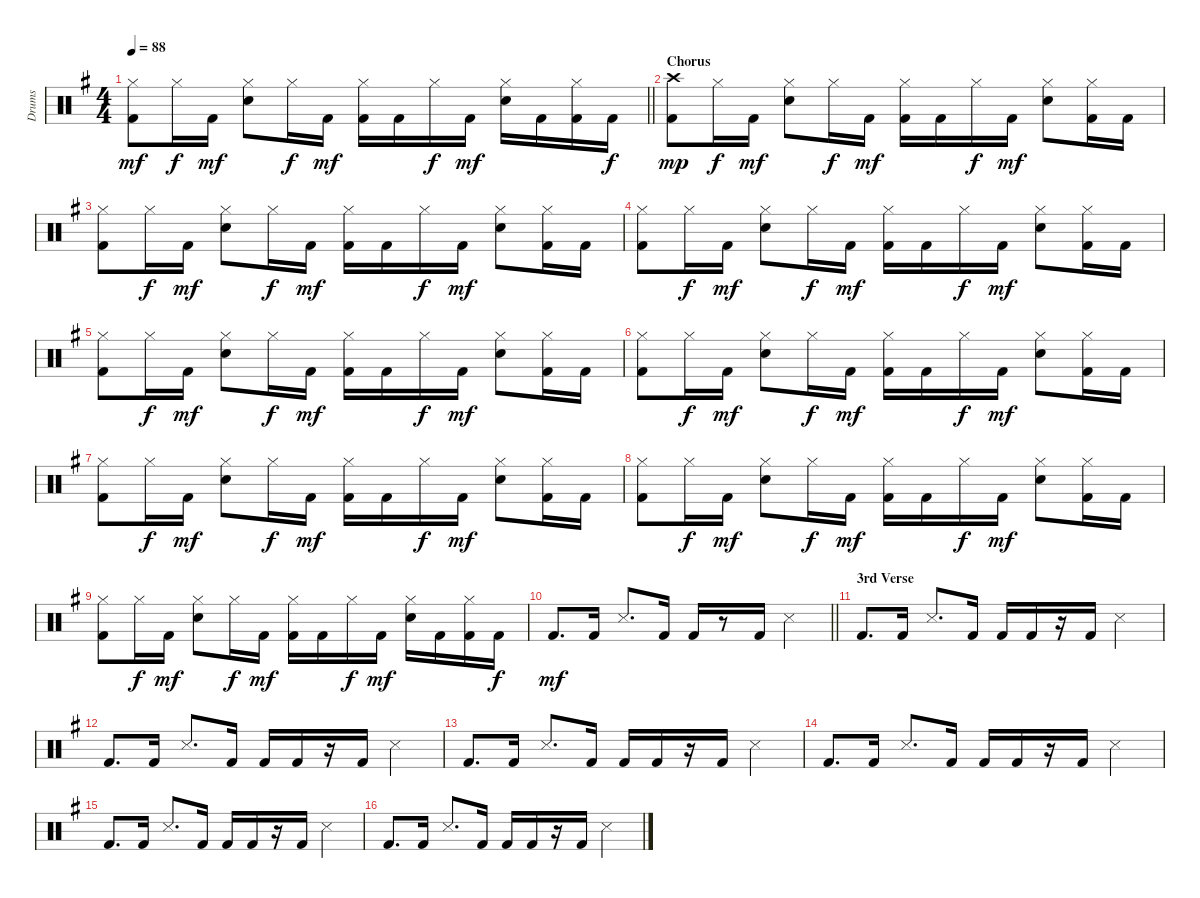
\track ("Drums" "Drums") {instrument percussion}
\staff {score}
\articulation defaults
\ts (4 4)
\tempo 88
\clef neutral
\barLineRight lightlight
\ks eminor
("Kick (hit) 2" "Hi-Hat (closed)").8{dy mf} "Hi-Hat (closed)".16{dy f} "Kick (hit) 2".16{dy mf} ("Snare (hit) 2" "Hi-Hat (closed)").8 "Hi-Hat (closed)".16{dy f} "Kick (hit) 2".16{dy mf} ("Kick (hit) 2" "Hi-Hat (closed)").16 "Kick (hit) 2".16 "Hi-Hat (closed)".16{dy f} "Kick (hit) 2".16{dy mf} ("Snare (hit) 2" "Hi-Hat (closed)").16 "Kick (hit) 2".16 ("Kick (hit) 2" "Hi-Hat (closed)").16 "Kick (hit) 2".16{dy f} |
\section ("" "Chorus")
("Kick (hit) 2" "Crash high (hit)").8{dy mp} "Hi-Hat (closed)".16{dy f} "Kick (hit) 2".16{dy mf} ("Snare (hit) 2" "Hi-Hat (closed)").8 "Hi-Hat (closed)".16{dy f} "Kick (hit) 2".16{dy mf} ("Kick (hit) 2" "Hi-Hat (closed)").16 "Kick (hit) 2".16 "Hi-Hat (closed)".16{dy f} "Kick (hit) 2".16{dy mf} ("Snare (hit) 2" "Hi-Hat (closed)").8 ("Kick (hit) 2" "Hi-Hat (closed)").16 "Kick (hit) 2".16 |
("Kick (hit) 2" "Hi-Hat (closed)").8 "Hi-Hat (closed)".16{dy f} "Kick (hit) 2".16{dy mf} ("Snare (hit) 2" "Hi-Hat (closed)").8 "Hi-Hat (closed)".16{dy f} "Kick (hit) 2".16{dy mf} ("Kick (hit) 2" "Hi-Hat (closed)").16 "Kick (hit) 2".16 "Hi-Hat (closed)".16{dy f} "Kick (hit) 2".16{dy mf} ("Snare (hit) 2" "Hi-Hat (closed)").8 ("Kick (hit) 2" "Hi-Hat (closed)").16 "Kick (hit) 2".16 |
("Kick (hit) 2" "Hi-Hat (closed)").8 "Hi-Hat (closed)".16{dy f} "Kick (hit) 2".16{dy mf} ("Snare (hit) 2" "Hi-Hat (closed)").8 "Hi-Hat (closed)".16{dy f} "Kick (hit) 2".16{dy mf} ("Kick (hit) 2" "Hi-Hat (closed)").16 "Kick (hit) 2".16 "Hi-Hat (closed)".16{dy f} "Kick (hit) 2".16{dy mf} ("Snare (hit) 2" "Hi-Hat (closed)").8 ("Kick (hit) 2" "Hi-Hat (closed)").16 "Kick (hit) 2".16 |
("Kick (hit) 2" "Hi-Hat (closed)").8 "Hi-Hat (closed)".16{dy f} "Kick (hit) 2".16{dy mf} ("Snare (hit) 2" "Hi-Hat (closed)").8 "Hi-Hat (closed)".16{dy f} "Kick (hit) 2".16{dy mf} ("Kick (hit) 2" "Hi-Hat (closed)").16 "Kick (hit) 2".16 "Hi-Hat (closed)".16{dy f} "Kick (hit) 2".16{dy mf} ("Snare (hit) 2" "Hi-Hat (closed)").8 ("Kick (hit) 2" "Hi-Hat (closed)").16 "Kick (hit) 2".16 |
("Kick (hit) 2" "Hi-Hat (closed)").8 "Hi-Hat (closed)".16{dy f} "Kick (hit) 2".16{dy mf} ("Snare (hit) 2" "Hi-Hat (closed)").8 "Hi-Hat (closed)".16{dy f} "Kick (hit) 2".16{dy mf} ("Kick (hit) 2" "Hi-Hat (closed)").16 "Kick (hit) 2".16 "Hi-Hat (closed)".16{dy f} "Kick (hit) 2".16{dy mf} ("Snare (hit) 2" "Hi-Hat (closed)").8 ("Kick (hit) 2" "Hi-Hat (closed)").16 "Kick (hit) 2".16 |
("Kick (hit) 2" "Hi-Hat (closed)").8 "Hi-Hat (closed)".16{dy f} "Kick (hit) 2".16{dy mf} ("Snare (hit) 2" "Hi-Hat (closed)").8 "Hi-Hat (closed)".16{dy f} "Kick (hit) 2".16{dy mf} ("Kick (hit) 2" "Hi-Hat (closed)").16 "Kick (hit) 2".16 "Hi-Hat (closed)".16{dy f} "Kick (hit) 2".16{dy mf} ("Snare (hit) 2" "Hi-Hat (closed)").8 ("Kick (hit) 2" "Hi-Hat (closed)").16 "Kick (hit) 2".16 |
("Kick (hit) 2" "Hi-Hat (closed)").8 "Hi-Hat (closed)".16{dy f} "Kick (hit) 2".16{dy mf} ("Snare (hit) 2" "Hi-Hat (closed)").8 "Hi-Hat (closed)".16{dy f} "Kick (hit) 2".16{dy mf} ("Kick (hit) 2" "Hi-Hat (closed)").16 "Kick (hit) 2".16 "Hi-Hat (closed)".16{dy f} "Kick (hit) 2".16{dy mf} ("Snare (hit) 2" "Hi-Hat (closed)").8 ("Kick (hit) 2" "Hi-Hat (closed)").16 "Kick (hit) 2".16 |
("Kick (hit) 2" "Hi-Hat (closed)").8 "Hi-Hat (closed)".16{dy f} "Kick (hit) 2".16{dy mf} ("Snare (hit) 2" "Hi-Hat (closed)").8 "Hi-Hat (closed)".16{dy f} "Kick (hit) 2".16{dy mf} ("Kick (hit) 2" "Hi-Hat (closed)").16 "Kick (hit) 2".16 "Hi-Hat (closed)".16{dy f} "Kick (hit) 2".16{dy mf} ("Snare (hit) 2" "Hi-Hat (closed)").16 "Kick (hit) 2".16 ("Kick (hit) 2" "Hi-Hat (closed)").16 "Kick (hit) 2".16{dy f} |
\barLineRight lightlight "Kick (hit) 2".8{d dy mf} "Kick (hit) 2".16 "Snare (side stick) 3".8{d} "Kick (hit) 2".16 "Kick (hit) 2".16
r.8 "Kick (hit) 2".16 "Snare (side stick) 3".4 |
\section ("" "3rd Verse")
"Kick (hit) 2".8{d} "Kick (hit) 2".16 "Snare (side stick) 3".8{d} "Kick (hit) 2".16 "Kick (hit) 2".16 "Kick (hit) 2".16 r.16 "Kick (hit) 2".16 "Snare (side stick) 3".4 |
"Kick (hit) 2".8{d} "Kick (hit) 2".16 "Snare (side stick) 3".8{d} "Kick (hit) 2".16 "Kick (hit) 2".16 "Kick (hit) 2".16 r.16 "Kick (hit) 2".16 "Snare (side stick) 3".4 |
"Kick (hit) 2".8{d} "Kick (hit) 2".16 "Snare (side stick) 3".8{d} "Kick (hit) 2".16 "Kick (hit) 2".16 "Kick (hit) 2".16 r.16 "Kick (hit) 2".16 "Snare (side stick) 3".4 |
"Kick (hit) 2".8{d} "Kick (hit) 2".16 "Snare (side stick) 3".8{d} "Kick (hit) 2".16 "Kick (hit) 2".16 "Kick (hit) 2".16 r.16 "Kick (hit) 2".16 "Snare (side stick) 3".4 |
"Kick (hit) 2".8{d} "Kick (hit) 2".16 "Snare (side stick) 3".8{d} "Kick (hit) 2".16 "Kick (hit) 2".16 "Kick (hit) 2".16 r.16 "Kick (hit) 2".16 "Snare (side stick) 3".4 |
"Kick (hit) 2".8{d} "Kick (hit) 2".16 "Snare (side stick) 3".8{d} "Kick (hit) 2".16 "Kick (hit) 2".16 "Kick (hit) 2".16 r.16 "Kick (hit) 2".16 "Snare (side stick) 3".4
